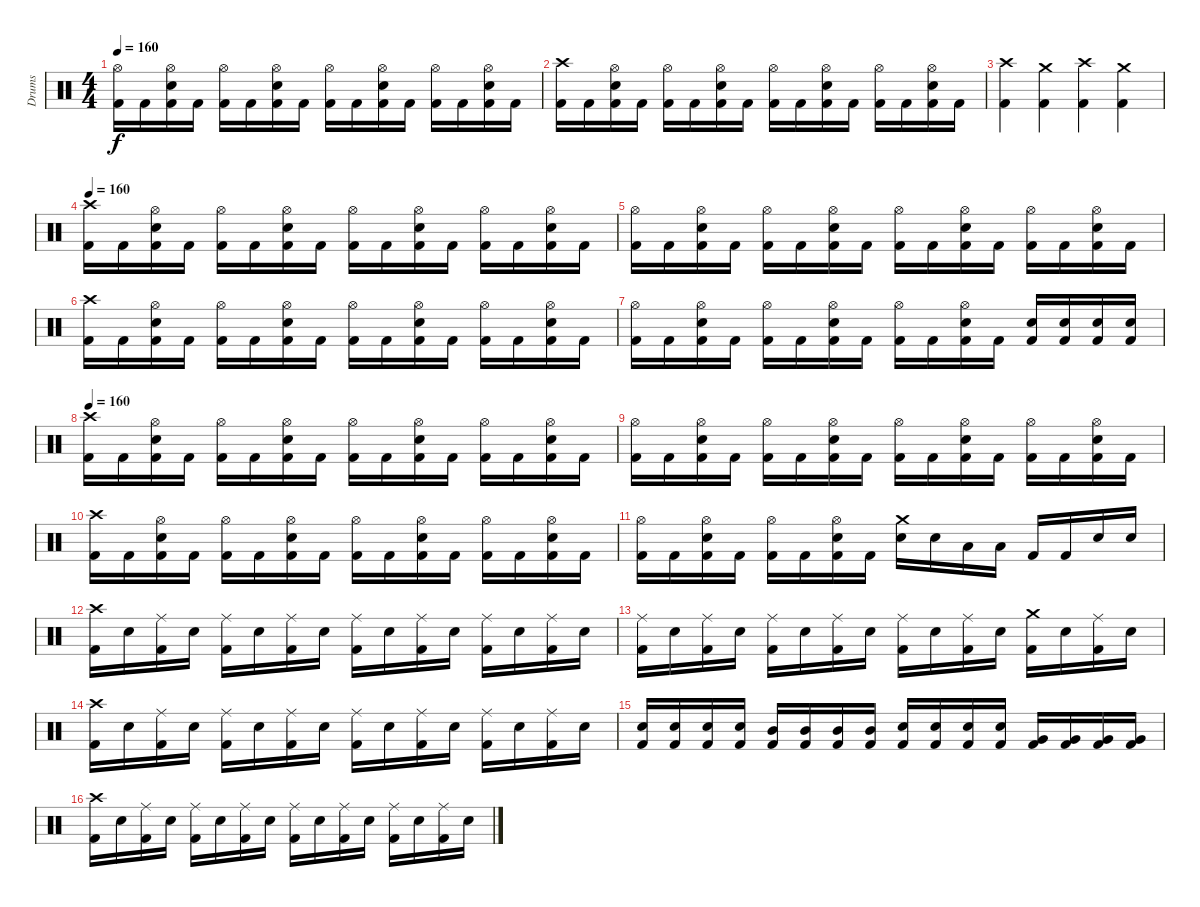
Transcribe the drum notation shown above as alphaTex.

\track ("Drums" "Drums") {instrument percussion}
\staff {score}
\articulation defaults
\ts (4 4)
\tempo 160
\clef neutral
\ks c
("Hi-Hat (open)" "Kick (hit) 2").16{dy f} "Kick (hit) 2".16 ("Hi-Hat (open)" "Snare (hit) 2" "Kick (hit) 2").16 "Kick (hit) 2".16 ("Hi-Hat (open)" "Kick (hit) 2").16 "Kick (hit) 2".16 ("Hi-Hat (open)" "Snare (hit) 2" "Kick (hit) 2").16 "Kick (hit) 2".16 ("Hi-Hat (open)" "Kick (hit) 2").16 "Kick (hit) 2".16 ("Hi-Hat (open)" "Snare (hit) 2" "Kick (hit) 2").16 "Kick (hit) 2".16 ("Hi-Hat (open)" "Kick (hit) 2").16 "Kick (hit) 2".16 ("Hi-Hat (open)" "Snare (hit) 2" "Kick (hit) 2").16 "Kick (hit) 2".16 |
("Crash high (hit)" "Kick (hit) 2").16 "Kick (hit) 2".16 ("Hi-Hat (open)" "Snare (hit) 2" "Kick (hit) 2").16 "Kick (hit) 2".16 ("Hi-Hat (open)" "Kick (hit) 2").16 "Kick (hit) 2".16 ("Hi-Hat (open)" "Snare (hit) 2" "Kick (hit) 2").16 "Kick (hit) 2".16 ("Hi-Hat (open)" "Kick (hit) 2").16 "Kick (hit) 2".16 ("Hi-Hat (open)" "Snare (hit) 2" "Kick (hit) 2").16 "Kick (hit) 2".16 ("Hi-Hat (open)" "Kick (hit) 2").16 "Kick (hit) 2".16 ("Hi-Hat (open)" "Snare (hit) 2" "Kick (hit) 2").16 "Kick (hit) 2".16 |
("Crash high (hit)" "Kick (hit) 2").4 ("Crash medium (hit)" "Kick (hit) 2").4 ("Crash high (hit)" "Kick (hit) 2").4 ("Crash medium (hit)" "Kick (hit) 2").4 |
\tempo 160
("Crash high (hit)" "Kick (hit) 2").16 "Kick (hit) 2".16 ("Hi-Hat (open)" "Snare (hit) 2" "Kick (hit) 2").16 "Kick (hit) 2".16 ("Hi-Hat (open)" "Kick (hit) 2").16 "Kick (hit) 2".16 ("Hi-Hat (open)" "Snare (hit) 2" "Kick (hit) 2").16 "Kick (hit) 2".16 ("Hi-Hat (open)" "Kick (hit) 2").16 "Kick (hit) 2".16 ("Hi-Hat (open)" "Snare (hit) 2" "Kick (hit) 2").16 "Kick (hit) 2".16 ("Hi-Hat (open)" "Kick (hit) 2").16 "Kick (hit) 2".16 ("Hi-Hat (open)" "Snare (hit) 2" "Kick (hit) 2").16 "Kick (hit) 2".16 |
("Hi-Hat (open)" "Kick (hit) 2").16 "Kick (hit) 2".16 ("Hi-Hat (open)" "Snare (hit) 2" "Kick (hit) 2").16 "Kick (hit) 2".16 ("Hi-Hat (open)" "Kick (hit) 2").16 "Kick (hit) 2".16 ("Hi-Hat (open)" "Snare (hit) 2" "Kick (hit) 2").16 "Kick (hit) 2".16 ("Hi-Hat (open)" "Kick (hit) 2").16 "Kick (hit) 2".16 ("Hi-Hat (open)" "Snare (hit) 2" "Kick (hit) 2").16 "Kick (hit) 2".16 ("Hi-Hat (open)" "Kick (hit) 2").16 "Kick (hit) 2".16 ("Hi-Hat (open)" "Snare (hit) 2" "Kick (hit) 2").16 "Kick (hit) 2".16 |
("Crash high (hit)" "Kick (hit) 2").16 "Kick (hit) 2".16 ("Hi-Hat (open)" "Snare (hit) 2" "Kick (hit) 2").16 "Kick (hit) 2".16 ("Hi-Hat (open)" "Kick (hit) 2").16 "Kick (hit) 2".16 ("Hi-Hat (open)" "Snare (hit) 2" "Kick (hit) 2").16 "Kick (hit) 2".16 ("Hi-Hat (open)" "Kick (hit) 2").16 "Kick (hit) 2".16 ("Hi-Hat (open)" "Snare (hit) 2" "Kick (hit) 2").16 "Kick (hit) 2".16 ("Hi-Hat (open)" "Kick (hit) 2").16 "Kick (hit) 2".16 ("Hi-Hat (open)" "Snare (hit) 2" "Kick (hit) 2").16 "Kick (hit) 2".16 |
("Hi-Hat (open)" "Kick (hit) 2").16 "Kick (hit) 2".16 ("Hi-Hat (open)" "Snare (hit) 2" "Kick (hit) 2").16 "Kick (hit) 2".16 ("Hi-Hat (open)" "Kick (hit) 2").16 "Kick (hit) 2".16 ("Hi-Hat (open)" "Snare (hit) 2" "Kick (hit) 2").16 "Kick (hit) 2".16 ("Hi-Hat (open)" "Kick (hit) 2").16 "Kick (hit) 2".16 ("Hi-Hat (open)" "Snare (hit) 2" "Kick (hit) 2").16 "Kick (hit) 2".16 ("Snare (hit) 2" "Kick (hit) 2").16 ("Snare (hit) 2" "Kick (hit) 2").16 ("Snare (hit) 2" "Kick (hit) 2").16 ("Snare (hit) 2" "Kick (hit) 2").16 |
\tempo 160
("Crash high (hit)" "Kick (hit) 2").16 "Kick (hit) 2".16 ("Hi-Hat (open)" "Snare (hit) 2" "Kick (hit) 2").16 "Kick (hit) 2".16 ("Hi-Hat (open)" "Kick (hit) 2").16 "Kick (hit) 2".16 ("Hi-Hat (open)" "Snare (hit) 2" "Kick (hit) 2").16 "Kick (hit) 2".16 ("Hi-Hat (open)" "Kick (hit) 2").16 "Kick (hit) 2".16 ("Hi-Hat (open)" "Snare (hit) 2" "Kick (hit) 2").16 "Kick (hit) 2".16 ("Hi-Hat (open)" "Kick (hit) 2").16 "Kick (hit) 2".16 ("Hi-Hat (open)" "Snare (hit) 2" "Kick (hit) 2").16 "Kick (hit) 2".16 |
("Hi-Hat (open)" "Kick (hit) 2").16 "Kick (hit) 2".16 ("Hi-Hat (open)" "Snare (hit) 2" "Kick (hit) 2").16 "Kick (hit) 2".16 ("Hi-Hat (open)" "Kick (hit) 2").16 "Kick (hit) 2".16 ("Hi-Hat (open)" "Snare (hit) 2" "Kick (hit) 2").16 "Kick (hit) 2".16 ("Hi-Hat (open)" "Kick (hit) 2").16 "Kick (hit) 2".16 ("Hi-Hat (open)" "Snare (hit) 2" "Kick (hit) 2").16 "Kick (hit) 2".16 ("Hi-Hat (open)" "Kick (hit) 2").16 "Kick (hit) 2".16 ("Hi-Hat (open)" "Snare (hit) 2" "Kick (hit) 2").16 "Kick (hit) 2".16 |
("Crash high (hit)" "Kick (hit) 2").16 "Kick (hit) 2".16 ("Hi-Hat (open)" "Snare (hit) 2" "Kick (hit) 2").16 "Kick (hit) 2".16 ("Hi-Hat (open)" "Kick (hit) 2").16 "Kick (hit) 2".16 ("Hi-Hat (open)" "Snare (hit) 2" "Kick (hit) 2").16 "Kick (hit) 2".16 ("Hi-Hat (open)" "Kick (hit) 2").16 "Kick (hit) 2".16 ("Hi-Hat (open)" "Snare (hit) 2" "Kick (hit) 2").16 "Kick (hit) 2".16 ("Hi-Hat (open)" "Kick (hit) 2").16 "Kick (hit) 2".16 ("Hi-Hat (open)" "Snare (hit) 2" "Kick (hit) 2").16 "Kick (hit) 2".16 |
("Hi-Hat (open)" "Kick (hit) 2").16 "Kick (hit) 2".16 ("Hi-Hat (open)" "Snare (hit) 2" "Kick (hit) 2").16 "Kick (hit) 2".16 ("Hi-Hat (open)" "Kick (hit) 2").16 "Kick (hit) 2".16 ("Hi-Hat (open)" "Snare (hit) 2" "Kick (hit) 2").16 "Kick (hit) 2".16 ("Crash medium (hit)" "Snare (hit) 2").16 "Snare (hit) 2".16 "Low Tom (hit)".16 "Low Tom (hit)".16 "Kick (hit) 2".16 "Kick (hit) 2".16 "Snare (hit) 2".16 "Snare (hit) 2".16 |
("Crash high (hit)" "Kick (hit) 2").16 "Snare (hit) 2".16 ("Ride (middle)" "Kick (hit) 2").16 "Snare (hit) 2".16 ("Ride (middle)" "Kick (hit) 2").16 "Snare (hit) 2".16 ("Ride (middle)" "Kick (hit) 2").16 "Snare (hit) 2".16 ("Ride (middle)" "Kick (hit) 2").16 "Snare (hit) 2".16 ("Ride (middle)" "Kick (hit) 2").16 "Snare (hit) 2".16 ("Ride (middle)" "Kick (hit) 2").16 "Snare (hit) 2".16 ("Ride (middle)" "Kick (hit) 2").16 "Snare (hit) 2".16 |
("Ride (middle)" "Kick (hit) 2").16 "Snare (hit) 2".16 ("Ride (middle)" "Kick (hit) 2").16 "Snare (hit) 2".16 ("Ride (middle)" "Kick (hit) 2").16 "Snare (hit) 2".16 ("Ride (middle)" "Kick (hit) 2").16 "Snare (hit) 2".16 ("Ride (middle)" "Kick (hit) 2").16 "Snare (hit) 2".16 ("Ride (middle)" "Kick (hit) 2").16 "Snare (hit) 2".16 ("Crash medium (hit)" "Kick (hit) 2").16 "Snare (hit) 2".16 ("Ride (middle)" "Kick (hit) 2").16 "Snare (hit) 2".16 |
("Crash high (hit)" "Kick (hit) 2").16 "Snare (hit) 2".16 ("Ride (middle)" "Kick (hit) 2").16 "Snare (hit) 2".16 ("Ride (middle)" "Kick (hit) 2").16 "Snare (hit) 2".16 ("Ride (middle)" "Kick (hit) 2").16 "Snare (hit) 2".16 ("Ride (middle)" "Kick (hit) 2").16 "Snare (hit) 2".16 ("Ride (middle)" "Kick (hit) 2").16 "Snare (hit) 2".16 ("Ride (middle)" "Kick (hit) 2").16 "Snare (hit) 2".16 ("Ride (middle)" "Kick (hit) 2").16 "Snare (hit) 2".16 |
("Snare (hit) 2" "Kick (hit) 2").16 ("Snare (hit) 2" "Kick (hit) 2").16 ("Snare (hit) 2" "Kick (hit) 2").16 ("Snare (hit) 2" "Kick (hit) 2").16 ("Mid Tom (hit)" "Kick (hit) 2").16 ("Mid Tom (hit)" "Kick (hit) 2").16 ("Mid Tom (hit)" "Kick (hit) 2").16 ("Mid Tom (hit)" "Kick (hit) 2").16 ("Snare (hit) 2" "Kick (hit) 2").16 ("Snare (hit) 2" "Kick (hit) 2").16 ("Snare (hit) 2" "Kick (hit) 2").16 ("Snare (hit) 2" "Kick (hit) 2").16 ("Very Low Tom (hit)" "Kick (hit) 2").16 ("Very Low Tom (hit)" "Kick (hit) 2").16 ("Very Low Tom (hit)" "Kick (hit) 2").16 ("Very Low Tom (hit)" "Kick (hit) 2").16 |
("Crash high (hit)" "Kick (hit) 2").16 "Snare (hit) 2".16 ("Ride (middle)" "Kick (hit) 2").16 "Snare (hit) 2".16 ("Ride (middle)" "Kick (hit) 2").16 "Snare (hit) 2".16 ("Ride (middle)" "Kick (hit) 2").16 "Snare (hit) 2".16 ("Ride (middle)" "Kick (hit) 2").16 "Snare (hit) 2".16 ("Ride (middle)" "Kick (hit) 2").16 "Snare (hit) 2".16 ("Ride (middle)" "Kick (hit) 2").16 "Snare (hit) 2".16 ("Ride (middle)" "Kick (hit) 2").16 "Snare (hit) 2".16
